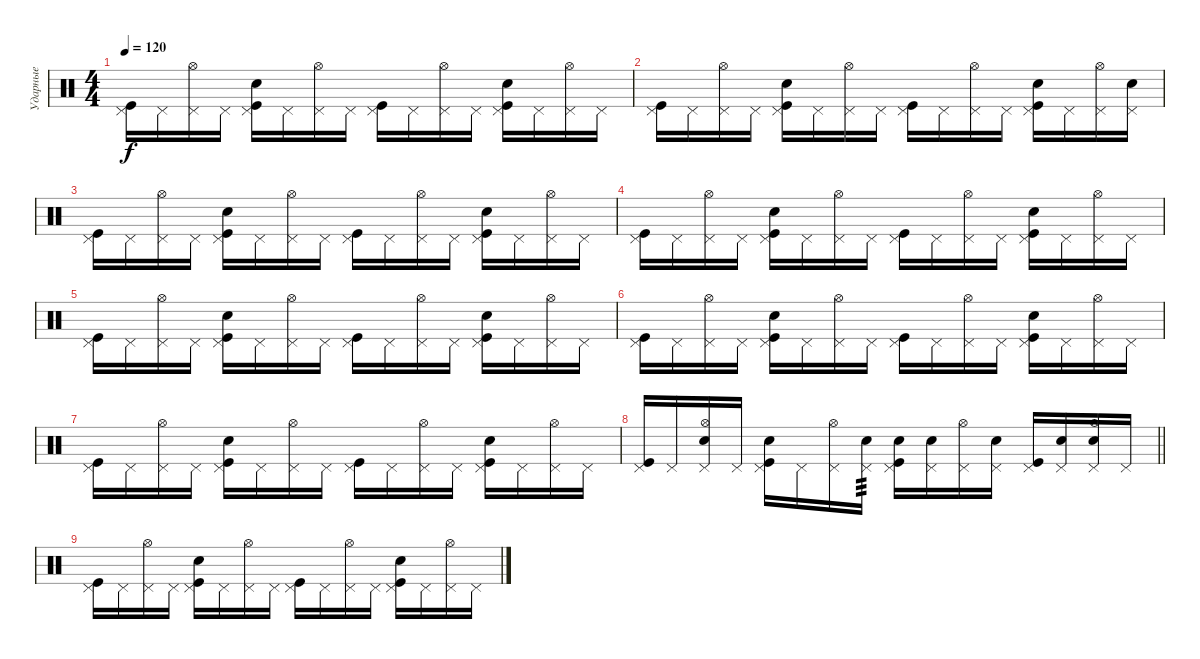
\track ("Ударные" "Ударные") {instrument percussion}
\staff {score}
\articulation defaults
\ts (4 4)
\tempo 120
\clef neutral
\ks c
("Pedal Hi-Hat (hit)" "Kick (hit)").16{dy f} "Pedal Hi-Hat (hit)".16 ("Pedal Hi-Hat (hit)" "Hi-Hat (open)").16 "Pedal Hi-Hat (hit)".16 ("Pedal Hi-Hat (hit)" "Kick (hit)" "Snare (hit) 2").16 "Pedal Hi-Hat (hit)".16 ("Pedal Hi-Hat (hit)" "Hi-Hat (open)").16 "Pedal Hi-Hat (hit)".16 ("Pedal Hi-Hat (hit)" "Kick (hit)").16 "Pedal Hi-Hat (hit)".16 ("Pedal Hi-Hat (hit)" "Hi-Hat (open)").16 "Pedal Hi-Hat (hit)".16 ("Pedal Hi-Hat (hit)" "Kick (hit)" "Snare (hit) 2").16 "Pedal Hi-Hat (hit)".16 ("Pedal Hi-Hat (hit)" "Hi-Hat (open)").16 "Pedal Hi-Hat (hit)".16 |
("Pedal Hi-Hat (hit)" "Kick (hit)").16 "Pedal Hi-Hat (hit)".16 ("Pedal Hi-Hat (hit)" "Hi-Hat (open)").16 "Pedal Hi-Hat (hit)".16 ("Pedal Hi-Hat (hit)" "Kick (hit)" "Snare (hit) 2").16 "Pedal Hi-Hat (hit)".16 ("Pedal Hi-Hat (hit)" "Hi-Hat (open)").16 "Pedal Hi-Hat (hit)".16 ("Pedal Hi-Hat (hit)" "Kick (hit)").16 "Pedal Hi-Hat (hit)".16 ("Pedal Hi-Hat (hit)" "Hi-Hat (open)").16 "Pedal Hi-Hat (hit)".16 ("Pedal Hi-Hat (hit)" "Kick (hit)" "Snare (hit) 2").16 "Pedal Hi-Hat (hit)".16 ("Pedal Hi-Hat (hit)" "Hi-Hat (open)").16 ("Pedal Hi-Hat (hit)" "Snare (hit) 2").16 |
("Pedal Hi-Hat (hit)" "Kick (hit)").16 "Pedal Hi-Hat (hit)".16 ("Pedal Hi-Hat (hit)" "Hi-Hat (open)").16 "Pedal Hi-Hat (hit)".16 ("Pedal Hi-Hat (hit)" "Kick (hit)" "Snare (hit) 2").16 "Pedal Hi-Hat (hit)".16 ("Pedal Hi-Hat (hit)" "Hi-Hat (open)").16 "Pedal Hi-Hat (hit)".16 ("Pedal Hi-Hat (hit)" "Kick (hit)").16 "Pedal Hi-Hat (hit)".16 ("Pedal Hi-Hat (hit)" "Hi-Hat (open)").16 "Pedal Hi-Hat (hit)".16 ("Pedal Hi-Hat (hit)" "Kick (hit)" "Snare (hit) 2").16 "Pedal Hi-Hat (hit)".16 ("Pedal Hi-Hat (hit)" "Hi-Hat (open)").16 "Pedal Hi-Hat (hit)".16 |
("Pedal Hi-Hat (hit)" "Kick (hit)").16 "Pedal Hi-Hat (hit)".16 ("Pedal Hi-Hat (hit)" "Hi-Hat (open)").16 "Pedal Hi-Hat (hit)".16 ("Pedal Hi-Hat (hit)" "Kick (hit)" "Snare (hit) 2").16 "Pedal Hi-Hat (hit)".16 ("Pedal Hi-Hat (hit)" "Hi-Hat (open)").16 "Pedal Hi-Hat (hit)".16 ("Pedal Hi-Hat (hit)" "Kick (hit)").16 "Pedal Hi-Hat (hit)".16 ("Pedal Hi-Hat (hit)" "Hi-Hat (open)").16 "Pedal Hi-Hat (hit)".16 ("Pedal Hi-Hat (hit)" "Kick (hit)" "Snare (hit) 2").16 "Pedal Hi-Hat (hit)".16 ("Pedal Hi-Hat (hit)" "Hi-Hat (open)").16 "Pedal Hi-Hat (hit)".16 |
("Pedal Hi-Hat (hit)" "Kick (hit)").16 "Pedal Hi-Hat (hit)".16 ("Pedal Hi-Hat (hit)" "Hi-Hat (open)").16 "Pedal Hi-Hat (hit)".16 ("Pedal Hi-Hat (hit)" "Kick (hit)" "Snare (hit) 2").16 "Pedal Hi-Hat (hit)".16 ("Pedal Hi-Hat (hit)" "Hi-Hat (open)").16 "Pedal Hi-Hat (hit)".16 ("Pedal Hi-Hat (hit)" "Kick (hit)").16 "Pedal Hi-Hat (hit)".16 ("Pedal Hi-Hat (hit)" "Hi-Hat (open)").16 "Pedal Hi-Hat (hit)".16 ("Pedal Hi-Hat (hit)" "Kick (hit)" "Snare (hit) 2").16 "Pedal Hi-Hat (hit)".16 ("Pedal Hi-Hat (hit)" "Hi-Hat (open)").16 "Pedal Hi-Hat (hit)".16 |
("Pedal Hi-Hat (hit)" "Kick (hit)").16 "Pedal Hi-Hat (hit)".16 ("Pedal Hi-Hat (hit)" "Hi-Hat (open)").16 "Pedal Hi-Hat (hit)".16 ("Pedal Hi-Hat (hit)" "Kick (hit)" "Snare (hit) 2").16 "Pedal Hi-Hat (hit)".16 ("Pedal Hi-Hat (hit)" "Hi-Hat (open)").16 "Pedal Hi-Hat (hit)".16 ("Pedal Hi-Hat (hit)" "Kick (hit)").16 "Pedal Hi-Hat (hit)".16 ("Pedal Hi-Hat (hit)" "Hi-Hat (open)").16 "Pedal Hi-Hat (hit)".16 ("Pedal Hi-Hat (hit)" "Kick (hit)" "Snare (hit) 2").16 "Pedal Hi-Hat (hit)".16 ("Pedal Hi-Hat (hit)" "Hi-Hat (open)").16 "Pedal Hi-Hat (hit)".16 |
("Pedal Hi-Hat (hit)" "Kick (hit)").16 "Pedal Hi-Hat (hit)".16 ("Pedal Hi-Hat (hit)" "Hi-Hat (open)").16 "Pedal Hi-Hat (hit)".16 ("Pedal Hi-Hat (hit)" "Kick (hit)" "Snare (hit) 2").16 "Pedal Hi-Hat (hit)".16 ("Pedal Hi-Hat (hit)" "Hi-Hat (open)").16 "Pedal Hi-Hat (hit)".16 ("Pedal Hi-Hat (hit)" "Kick (hit)").16 "Pedal Hi-Hat (hit)".16 ("Pedal Hi-Hat (hit)" "Hi-Hat (open)").16 "Pedal Hi-Hat (hit)".16 ("Pedal Hi-Hat (hit)" "Kick (hit)" "Snare (hit) 2").16 "Pedal Hi-Hat (hit)".16 ("Pedal Hi-Hat (hit)" "Hi-Hat (open)").16 "Pedal Hi-Hat (hit)".16 |
\barLineRight lightlight
("Pedal Hi-Hat (hit)" "Kick (hit)").16 "Pedal Hi-Hat (hit)".16 ("Pedal Hi-Hat (hit)" "Hi-Hat (open)" "Snare (hit) 2").16 "Pedal Hi-Hat (hit)".16 ("Pedal Hi-Hat (hit)" "Kick (hit)" "Snare (hit) 2").16 "Pedal Hi-Hat (hit)".16 ("Pedal Hi-Hat (hit)" "Hi-Hat (open)").16 ("Pedal Hi-Hat (hit)" "Snare (hit) 2").16{tp 3} ("Pedal Hi-Hat (hit)" "Kick (hit)" "Snare (hit) 2").16 ("Pedal Hi-Hat (hit)" "Snare (hit) 2").16 ("Pedal Hi-Hat (hit)" "Hi-Hat (open)").16 ("Pedal Hi-Hat (hit)" "Snare (hit) 2").16 ("Pedal Hi-Hat (hit)" "Kick (hit)").16 ("Pedal Hi-Hat (hit)" "Snare (hit) 2").16 ("Pedal Hi-Hat (hit)" "Hi-Hat (open)" "Snare (hit) 2").16 "Pedal Hi-Hat (hit)".16 |
("Pedal Hi-Hat (hit)" "Kick (hit)").16 "Pedal Hi-Hat (hit)".16 ("Pedal Hi-Hat (hit)" "Hi-Hat (open)").16 "Pedal Hi-Hat (hit)".16 ("Pedal Hi-Hat (hit)" "Kick (hit)" "Snare (hit) 2").16 "Pedal Hi-Hat (hit)".16 ("Pedal Hi-Hat (hit)" "Hi-Hat (open)").16 "Pedal Hi-Hat (hit)".16 ("Pedal Hi-Hat (hit)" "Kick (hit)").16 "Pedal Hi-Hat (hit)".16 ("Pedal Hi-Hat (hit)" "Hi-Hat (open)").16 "Pedal Hi-Hat (hit)".16 ("Pedal Hi-Hat (hit)" "Kick (hit)" "Snare (hit) 2").16 "Pedal Hi-Hat (hit)".16 ("Pedal Hi-Hat (hit)" "Hi-Hat (open)").16 "Pedal Hi-Hat (hit)".16
